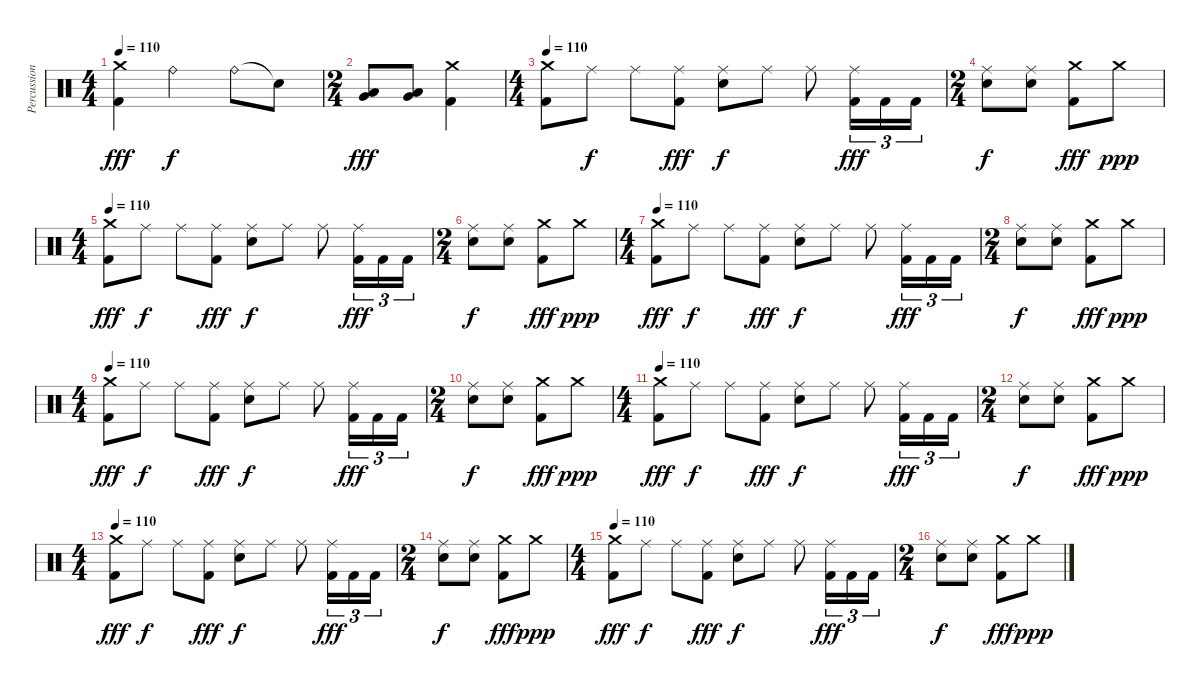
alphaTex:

\track ("Percussion" "Percussion") {instrument percussion}
\staff {score}
\articulation defaults
\ts (4 4)
\tempo 110
\clef neutral
\ks c
("Crash medium (hit)" "Kick (hit) 2").4{dy fff} "Ride (bell)".2{dy f} "Ride (bell)".8 "Snare (hit)"{t}.8 |
\ts (2 4)
("Very Low Tom (hit)" "Low Tom (hit)").8{dy fff} ("Very Low Tom (hit)" "Low Tom (hit)").8 ("Crash medium (hit)" "Kick (hit) 2").4 |
\ts (4 4)
\tempo 110
("Crash medium (hit)" "Kick (hit) 2").8 "Ride (middle)".8{dy f} "Ride (middle)".8 ("Ride (middle)" "Kick (hit) 2").8{dy fff} ("Ride (middle)" "Electric Snare (hit)").8{dy f} "Ride (middle)".8 "Ride (middle)".8 ("Ride (middle)" "Kick (hit) 2").16{tu (3 2) dy fff} "Kick (hit) 2".16{tu (3 2)} "Kick (hit) 2".16{tu (3 2)} |
\ts (2 4)
("Ride (middle)" "Electric Snare (hit)").8{dy f} ("Ride (middle)" "Electric Snare (hit)").8 ("Crash medium (hit)" "Kick (hit) 2").8{dy fff} "Crash medium (hit)".8{dy ppp} |
\ts (4 4)
\tempo 110
("Crash medium (hit)" "Kick (hit) 2").8{dy fff} "Ride (middle)".8{dy f} "Ride (middle)".8 ("Ride (middle)" "Kick (hit) 2").8{dy fff} ("Ride (middle)" "Electric Snare (hit)").8{dy f} "Ride (middle)".8 "Ride (middle)".8 ("Ride (middle)" "Kick (hit) 2").16{tu (3 2) dy fff} "Kick (hit) 2".16{tu (3 2)} "Kick (hit) 2".16{tu (3 2)} |
\ts (2 4)
("Ride (middle)" "Electric Snare (hit)").8{dy f} ("Ride (middle)" "Electric Snare (hit)").8 ("Crash medium (hit)" "Kick (hit) 2").8{dy fff} "Crash medium (hit)".8{dy ppp} |
\ts (4 4)
\tempo 110
("Crash medium (hit)" "Kick (hit) 2").8{dy fff} "Ride (middle)".8{dy f} "Ride (middle)".8 ("Ride (middle)" "Kick (hit) 2").8{dy fff} ("Ride (middle)" "Electric Snare (hit)").8{dy f} "Ride (middle)".8 "Ride (middle)".8 ("Ride (middle)" "Kick (hit) 2").16{tu (3 2) dy fff} "Kick (hit) 2".16{tu (3 2)} "Kick (hit) 2".16{tu (3 2)} |
\ts (2 4)
("Ride (middle)" "Electric Snare (hit)").8{dy f} ("Ride (middle)" "Electric Snare (hit)").8 ("Crash medium (hit)" "Kick (hit) 2").8{dy fff} "Crash medium (hit)".8{dy ppp} |
\ts (4 4)
\tempo 110
("Crash medium (hit)" "Kick (hit) 2").8{dy fff} "Ride (middle)".8{dy f} "Ride (middle)".8 ("Ride (middle)" "Kick (hit) 2").8{dy fff} ("Ride (middle)" "Electric Snare (hit)").8{dy f} "Ride (middle)".8 "Ride (middle)".8 ("Ride (middle)" "Kick (hit) 2").16{tu (3 2) dy fff} "Kick (hit) 2".16{tu (3 2)} "Kick (hit) 2".16{tu (3 2)} |
\ts (2 4)
("Ride (middle)" "Electric Snare (hit)").8{dy f} ("Ride (middle)" "Electric Snare (hit)").8 ("Crash medium (hit)" "Kick (hit) 2").8{dy fff} "Crash medium (hit)".8{dy ppp} |
\ts (4 4)
\tempo 110
("Crash medium (hit)" "Kick (hit) 2").8{dy fff} "Ride (middle)".8{dy f} "Ride (middle)".8 ("Ride (middle)" "Kick (hit) 2").8{dy fff} ("Ride (middle)" "Electric Snare (hit)").8{dy f} "Ride (middle)".8 "Ride (middle)".8 ("Ride (middle)" "Kick (hit) 2").16{tu (3 2) dy fff} "Kick (hit) 2".16{tu (3 2)} "Kick (hit) 2".16{tu (3 2)} |
\ts (2 4)
("Ride (middle)" "Electric Snare (hit)").8{dy f} ("Ride (middle)" "Electric Snare (hit)").8 ("Crash medium (hit)" "Kick (hit) 2").8{dy fff} "Crash medium (hit)".8{dy ppp} |
\ts (4 4)
\tempo 110
("Crash medium (hit)" "Kick (hit) 2").8{dy fff} "Ride (middle)".8{dy f} "Ride (middle)".8 ("Ride (middle)" "Kick (hit) 2").8{dy fff} ("Ride (middle)" "Electric Snare (hit)").8{dy f} "Ride (middle)".8 "Ride (middle)".8 ("Ride (middle)" "Kick (hit) 2").16{tu (3 2) dy fff} "Kick (hit) 2".16{tu (3 2)} "Kick (hit) 2".16{tu (3 2)} |
\ts (2 4)
("Ride (middle)" "Electric Snare (hit)").8{dy f} ("Ride (middle)" "Electric Snare (hit)").8 ("Crash medium (hit)" "Kick (hit) 2").8{dy fff} "Crash medium (hit)".8{dy ppp} |
\ts (4 4)
\tempo 110
("Crash medium (hit)" "Kick (hit) 2").8{dy fff} "Ride (middle)".8{dy f} "Ride (middle)".8 ("Ride (middle)" "Kick (hit) 2").8{dy fff} ("Ride (middle)" "Electric Snare (hit)").8{dy f} "Ride (middle)".8 "Ride (middle)".8 ("Ride (middle)" "Kick (hit) 2").16{tu (3 2) dy fff} "Kick (hit) 2".16{tu (3 2)} "Kick (hit) 2".16{tu (3 2)} |
\ts (2 4)
("Ride (middle)" "Electric Snare (hit)").8{dy f} ("Ride (middle)" "Electric Snare (hit)").8 ("Crash medium (hit)" "Kick (hit) 2").8{dy fff} "Crash medium (hit)".8{dy ppp}
